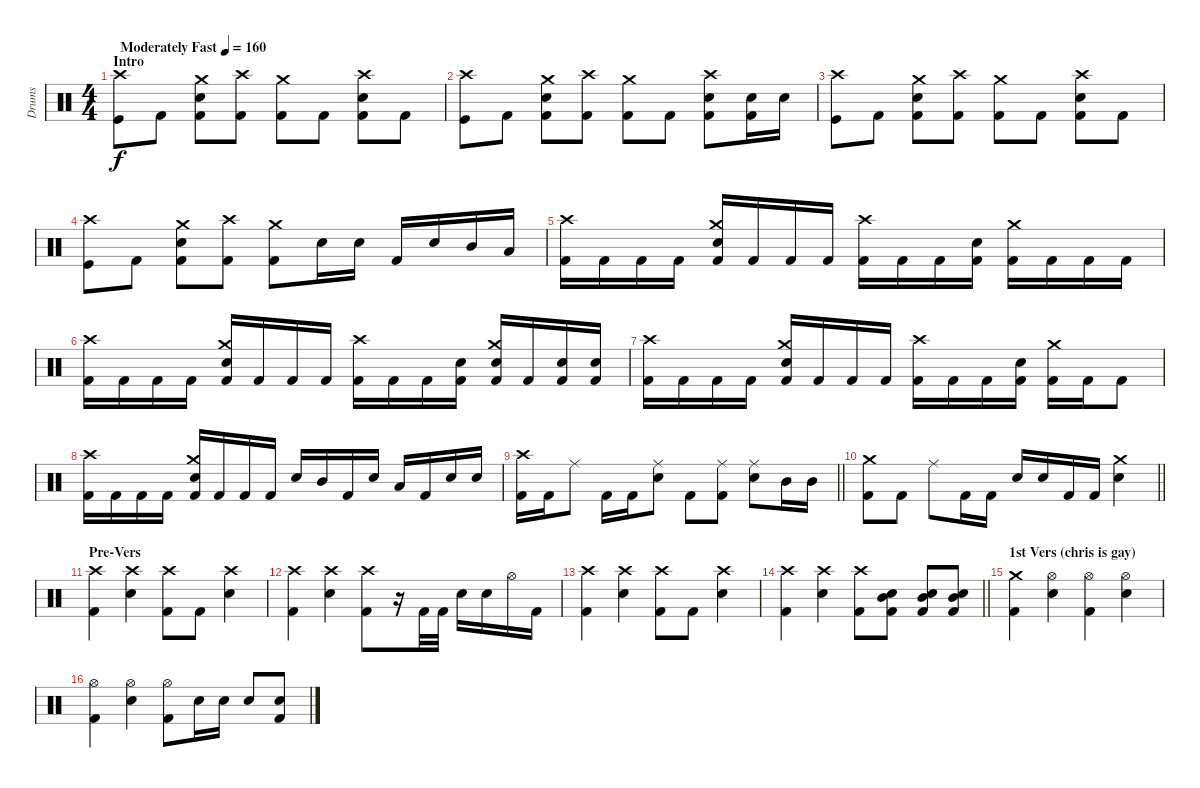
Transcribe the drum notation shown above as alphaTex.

\track ("Drums" "Drums") {instrument percussion}
\staff {score}
\articulation defaults
\ts (4 4)
\section ("" "Intro")
\tempo (160 "Moderately Fast")
\clef neutral
\ks c
("Crash high (hit)" "Kick (hit)").8{dy f} "Kick (hit) 2".8 ("Crash medium (hit)" "Electric Snare (hit)" "Kick (hit) 2").8 ("Crash high (hit)" "Kick (hit) 2").8 ("Crash medium (hit)" "Kick (hit) 2").8 "Kick (hit) 2".8 ("Crash high (hit)" "Electric Snare (hit)" "Kick (hit) 2").8 "Kick (hit) 2".8 |
("Crash high (hit)" "Kick (hit)").8 "Kick (hit) 2".8 ("Crash medium (hit)" "Electric Snare (hit)" "Kick (hit) 2").8 ("Crash high (hit)" "Kick (hit) 2").8 ("Crash medium (hit)" "Kick (hit) 2").8 "Kick (hit) 2".8 ("Crash high (hit)" "Electric Snare (hit)" "Kick (hit) 2").8 ("Electric Snare (hit)" "Kick (hit) 2").16 "Electric Snare (hit)".16 |
("Crash high (hit)" "Kick (hit)").8 "Kick (hit) 2".8 ("Crash medium (hit)" "Electric Snare (hit)" "Kick (hit) 2").8 ("Crash high (hit)" "Kick (hit) 2").8 ("Crash medium (hit)" "Kick (hit) 2").8 "Kick (hit) 2".8 ("Crash high (hit)" "Electric Snare (hit)" "Kick (hit) 2").8 "Kick (hit) 2".8 |
("Crash high (hit)" "Kick (hit)").8 "Kick (hit) 2".8 ("Crash medium (hit)" "Electric Snare (hit)" "Kick (hit) 2").8 ("Crash high (hit)" "Kick (hit) 2").8 ("Crash medium (hit)" "Kick (hit) 2").8 "Electric Snare (hit)".16 "Electric Snare (hit)".16 "Kick (hit) 2".16 "Electric Snare (hit)".16 "Mid Tom (hit)".16 "Low Tom (hit)".16 |
("Crash high (hit)" "Kick (hit) 2").16 "Kick (hit) 2".16 "Kick (hit) 2".16 "Kick (hit) 2".16 ("Crash medium (hit)" "Electric Snare (hit)" "Kick (hit) 2").16 "Kick (hit) 2".16 "Kick (hit) 2".16 "Kick (hit) 2".16 ("Crash high (hit)" "Kick (hit) 2").16 "Kick (hit) 2".16 "Kick (hit) 2".16 ("Electric Snare (hit)" "Kick (hit) 2").16 ("Crash medium (hit)" "Kick (hit) 2").16 "Kick (hit) 2".16 "Kick (hit) 2".16 "Kick (hit) 2".16 |
("Crash high (hit)" "Kick (hit) 2").16 "Kick (hit) 2".16 "Kick (hit) 2".16 "Kick (hit) 2".16 ("Crash medium (hit)" "Electric Snare (hit)" "Kick (hit) 2").16 "Kick (hit) 2".16 "Kick (hit) 2".16 "Kick (hit) 2".16 ("Crash high (hit)" "Kick (hit) 2").16 "Kick (hit) 2".16 "Kick (hit) 2".16 ("Electric Snare (hit)" "Kick (hit) 2").16 ("Crash medium (hit)" "Electric Snare (hit)" "Kick (hit) 2").16 "Kick (hit) 2".16 ("Electric Snare (hit)" "Kick (hit) 2").16 ("Electric Snare (hit)" "Kick (hit) 2").16 |
("Crash high (hit)" "Kick (hit) 2").16 "Kick (hit) 2".16 "Kick (hit) 2".16 "Kick (hit) 2".16 ("Crash medium (hit)" "Electric Snare (hit)" "Kick (hit) 2").16 "Kick (hit) 2".16 "Kick (hit) 2".16 "Kick (hit) 2".16 ("Crash high (hit)" "Kick (hit) 2").16 "Kick (hit) 2".16 "Kick (hit) 2".16 ("Electric Snare (hit)" "Kick (hit) 2").16 ("Crash medium (hit)" "Kick (hit) 2").16 "Kick (hit) 2".16 "Kick (hit) 2".8 |
("Crash high (hit)" "Kick (hit) 2").16 "Kick (hit) 2".16 "Kick (hit) 2".16 "Kick (hit) 2".16 ("Crash medium (hit)" "Electric Snare (hit)" "Kick (hit) 2").16 "Kick (hit) 2".16 "Kick (hit) 2".16 "Kick (hit) 2".16 "Electric Snare (hit)".16 "Mid Tom (hit)".16 "Kick (hit) 2".16 "Electric Snare (hit)".16 "Low Tom (hit)".16 "Kick (hit) 2".16 "Electric Snare (hit)".16 "Electric Snare (hit)".16 |
\barLineRight lightlight
("Crash high (hit)" "Kick (hit) 2").16 "Kick (hit) 2".16 "Ride (middle)".8 "Kick (hit) 2".16 "Kick (hit) 2".16 ("Ride (middle)" "Electric Snare (hit)").8 "Kick (hit) 2".8 ("Ride (middle)" "Kick (hit) 2").8 ("Ride (middle)" "Electric Snare (hit)").8 "Mid Tom (hit)".16 "Mid Tom (hit)".16 |
\barLineRight lightlight
("Crash medium (hit)" "Kick (hit) 2").8 "Kick (hit) 2".8 "Ride (middle)".8 "Kick (hit) 2".16 "Kick (hit) 2".16 "Electric Snare (hit)".16 "Electric Snare (hit)".16 "Kick (hit) 2".16 "Kick (hit) 2".16 ("Crash medium (hit)" "Electric Snare (hit)").4 |
\section ("" "Pre-Vers")
("Crash high (hit)" "Kick (hit) 2").4 ("Crash high (hit)" "Electric Snare (hit)").4 ("Crash high (hit)" "Kick (hit) 2").8 "Kick (hit) 2".8 ("Crash high (hit)" "Electric Snare (hit)").4 |
("Crash high (hit)" "Kick (hit) 2").4 ("Crash high (hit)" "Electric Snare (hit)").4 ("Crash high (hit)" "Kick (hit) 2").8 r.16 "Kick (hit) 2".32 "Kick (hit) 2".32 "Electric Snare (hit)".16 "Electric Snare (hit)".16 "Hi-Hat (open)".16 "Kick (hit) 2".16 |
("Crash high (hit)" "Kick (hit) 2").4 ("Crash high (hit)" "Electric Snare (hit)").4 ("Crash high (hit)" "Kick (hit) 2").8 "Kick (hit) 2".8 ("Crash high (hit)" "Electric Snare (hit)").4 |
\barLineRight lightlight
("Crash high (hit)" "Kick (hit) 2").4 ("Crash high (hit)" "Electric Snare (hit)").4 ("Crash high (hit)" "Kick (hit) 2").8 ("Electric Snare (hit)" "Mid Tom (hit)" "Kick (hit) 2").8 ("Electric Snare (hit)" "Mid Tom (hit)" "Kick (hit) 2").8 ("Electric Snare (hit)" "Mid Tom (hit)" "Kick (hit) 2").8 |
\section ("" "1st Vers (chris is gay)")
("Crash medium (hit)" "Kick (hit) 2").4 ("Hi-Hat (open)" "Electric Snare (hit)").4 ("Hi-Hat (open)" "Kick (hit) 2").4 ("Hi-Hat (open)" "Electric Snare (hit)").4 |
("Hi-Hat (open)" "Kick (hit) 2").4 ("Hi-Hat (open)" "Electric Snare (hit)").4 ("Hi-Hat (open)" "Kick (hit) 2").8 "Electric Snare (hit)".16 "Electric Snare (hit)".16 "Electric Snare (hit)".8 ("Electric Snare (hit)" "Kick (hit) 2").8
